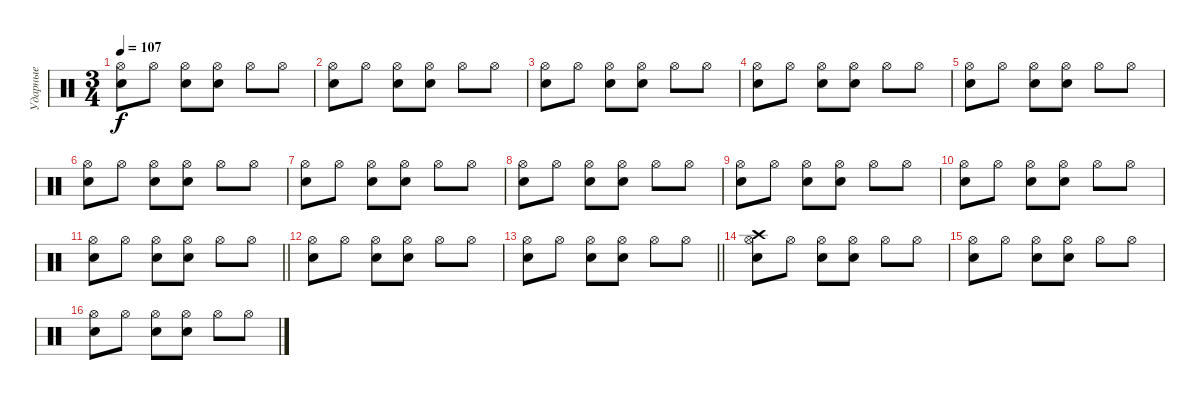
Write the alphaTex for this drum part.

\track ("Ударные" "Ударные") {instrument percussion}
\staff {score}
\articulation defaults
\ts (3 4)
\tempo 107
\clef neutral
\ks c
("Hi-Hat (open)" "Snare (hit) 2").8{dy f} "Hi-Hat (open)".8 ("Hi-Hat (open)" "Snare (hit) 2").8 ("Hi-Hat (open)" "Snare (hit) 2").8 "Hi-Hat (open)".8 "Hi-Hat (open)".8 |
("Hi-Hat (open)" "Snare (hit) 2").8 "Hi-Hat (open)".8 ("Hi-Hat (open)" "Snare (hit) 2").8 ("Hi-Hat (open)" "Snare (hit) 2").8 "Hi-Hat (open)".8 "Hi-Hat (open)".8 |
("Hi-Hat (open)" "Snare (hit) 2").8 "Hi-Hat (open)".8 ("Hi-Hat (open)" "Snare (hit) 2").8 ("Hi-Hat (open)" "Snare (hit) 2").8 "Hi-Hat (open)".8 "Hi-Hat (open)".8 |
("Hi-Hat (open)" "Snare (hit) 2").8 "Hi-Hat (open)".8 ("Hi-Hat (open)" "Snare (hit) 2").8 ("Hi-Hat (open)" "Snare (hit) 2").8 "Hi-Hat (open)".8 "Hi-Hat (open)".8 |
("Hi-Hat (open)" "Snare (hit) 2").8 "Hi-Hat (open)".8 ("Hi-Hat (open)" "Snare (hit) 2").8 ("Hi-Hat (open)" "Snare (hit) 2").8 "Hi-Hat (open)".8 "Hi-Hat (open)".8 |
("Hi-Hat (open)" "Snare (hit) 2").8 "Hi-Hat (open)".8 ("Hi-Hat (open)" "Snare (hit) 2").8 ("Hi-Hat (open)" "Snare (hit) 2").8 "Hi-Hat (open)".8 "Hi-Hat (open)".8 |
("Hi-Hat (open)" "Snare (hit) 2").8 "Hi-Hat (open)".8 ("Hi-Hat (open)" "Snare (hit) 2").8 ("Hi-Hat (open)" "Snare (hit) 2").8 "Hi-Hat (open)".8 "Hi-Hat (open)".8 |
("Hi-Hat (open)" "Snare (hit) 2").8 "Hi-Hat (open)".8 ("Hi-Hat (open)" "Snare (hit) 2").8 ("Hi-Hat (open)" "Snare (hit) 2").8 "Hi-Hat (open)".8 "Hi-Hat (open)".8 |
("Hi-Hat (open)" "Snare (hit) 2").8 "Hi-Hat (open)".8 ("Hi-Hat (open)" "Snare (hit) 2").8 ("Hi-Hat (open)" "Snare (hit) 2").8 "Hi-Hat (open)".8 "Hi-Hat (open)".8 |
("Hi-Hat (open)" "Snare (hit) 2").8 "Hi-Hat (open)".8 ("Hi-Hat (open)" "Snare (hit) 2").8 ("Hi-Hat (open)" "Snare (hit) 2").8 "Hi-Hat (open)".8 "Hi-Hat (open)".8 |
\barLineRight lightlight
("Hi-Hat (open)" "Snare (hit) 2").8 "Hi-Hat (open)".8 ("Hi-Hat (open)" "Snare (hit) 2").8 ("Hi-Hat (open)" "Snare (hit) 2").8 "Hi-Hat (open)".8 "Hi-Hat (open)".8 |
("Hi-Hat (open)" "Snare (hit) 2").8 "Hi-Hat (open)".8 ("Hi-Hat (open)" "Snare (hit) 2").8 ("Hi-Hat (open)" "Snare (hit) 2").8 "Hi-Hat (open)".8 "Hi-Hat (open)".8 |
\barLineRight lightlight
("Hi-Hat (open)" "Snare (hit) 2").8 "Hi-Hat (open)".8 ("Hi-Hat (open)" "Snare (hit) 2").8 ("Hi-Hat (open)" "Snare (hit) 2").8 "Hi-Hat (open)".8 "Hi-Hat (open)".8 |
("Hi-Hat (open)" "Crash high (hit)" "Snare (hit) 2").8 "Hi-Hat (open)".8 ("Hi-Hat (open)" "Snare (hit) 2").8 ("Hi-Hat (open)" "Snare (hit) 2").8 "Hi-Hat (open)".8 "Hi-Hat (open)".8 |
("Hi-Hat (open)" "Snare (hit) 2").8 "Hi-Hat (open)".8 ("Hi-Hat (open)" "Snare (hit) 2").8 ("Hi-Hat (open)" "Snare (hit) 2").8 "Hi-Hat (open)".8 "Hi-Hat (open)".8 |
("Hi-Hat (open)" "Snare (hit) 2").8 "Hi-Hat (open)".8 ("Hi-Hat (open)" "Snare (hit) 2").8 ("Hi-Hat (open)" "Snare (hit) 2").8 "Hi-Hat (open)".8 "Hi-Hat (open)".8
